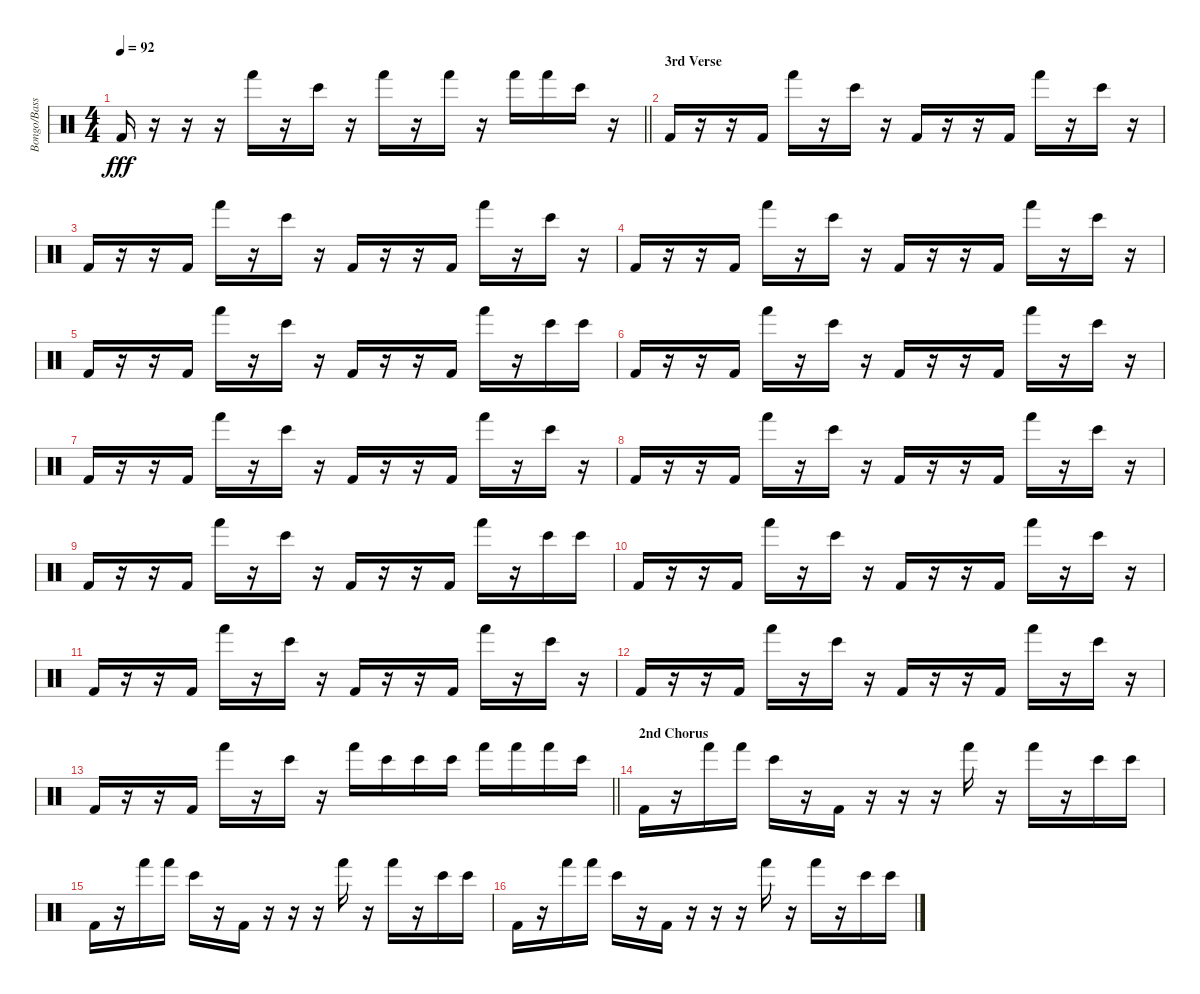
\track ("Bongo/Bass Drum" "Bongo/Bass") {instrument percussion}
\staff
\articulation defaults
\ts (4 4)
\tempo 92
\clef neutral
\barLineRight lightlight
\ks c "Kick (hit) 2".16{dy fff}
r.16 r.16 r.16 "Hand (hit)".16 r.16 "Bongo High (hit)".16 r.16 "Hand (hit)".16 r.16 "Hand (hit)".16 r.16 "Hand (hit)".16 "Hand (hit)".16 "Bongo High (hit)".16 r.16 |
\section ("" "3rd Verse")
"Kick (hit) 2".16 r.16 r.16 "Kick (hit) 2".16 "Hand (hit)".16 r.16 "Bongo High (hit)".16 r.16 "Kick (hit) 2".16 r.16 r.16 "Kick (hit) 2".16 "Hand (hit)".16 r.16 "Bongo High (hit)".16 r.16 |
"Kick (hit) 2".16 r.16 r.16 "Kick (hit) 2".16 "Hand (hit)".16 r.16 "Bongo High (hit)".16 r.16 "Kick (hit) 2".16 r.16 r.16 "Kick (hit) 2".16 "Hand (hit)".16 r.16 "Bongo High (hit)".16 r.16 |
"Kick (hit) 2".16 r.16 r.16 "Kick (hit) 2".16 "Hand (hit)".16 r.16 "Bongo High (hit)".16 r.16 "Kick (hit) 2".16 r.16 r.16 "Kick (hit) 2".16 "Hand (hit)".16 r.16 "Bongo High (hit)".16 r.16 |
"Kick (hit) 2".16 r.16 r.16 "Kick (hit) 2".16 "Hand (hit)".16 r.16 "Bongo High (hit)".16 r.16 "Kick (hit) 2".16 r.16 r.16 "Kick (hit) 2".16 "Hand (hit)".16 r.16 "Bongo High (hit)".16 "Bongo High (hit)".16 |
"Kick (hit) 2".16 r.16 r.16 "Kick (hit) 2".16 "Hand (hit)".16 r.16 "Bongo High (hit)".16 r.16 "Kick (hit) 2".16 r.16 r.16 "Kick (hit) 2".16 "Hand (hit)".16 r.16 "Bongo High (hit)".16 r.16 |
"Kick (hit) 2".16 r.16 r.16 "Kick (hit) 2".16 "Hand (hit)".16 r.16 "Bongo High (hit)".16 r.16 "Kick (hit) 2".16 r.16 r.16 "Kick (hit) 2".16 "Hand (hit)".16 r.16 "Bongo High (hit)".16 r.16 |
"Kick (hit) 2".16 r.16 r.16 "Kick (hit) 2".16 "Hand (hit)".16 r.16 "Bongo High (hit)".16 r.16 "Kick (hit) 2".16 r.16 r.16 "Kick (hit) 2".16 "Hand (hit)".16 r.16 "Bongo High (hit)".16 r.16 |
"Kick (hit) 2".16 r.16 r.16 "Kick (hit) 2".16 "Hand (hit)".16 r.16 "Bongo High (hit)".16 r.16 "Kick (hit) 2".16 r.16 r.16 "Kick (hit) 2".16 "Hand (hit)".16 r.16 "Bongo High (hit)".16 "Bongo High (hit)".16 |
"Kick (hit) 2".16 r.16 r.16 "Kick (hit) 2".16 "Hand (hit)".16 r.16 "Bongo High (hit)".16 r.16 "Kick (hit) 2".16 r.16 r.16 "Kick (hit) 2".16 "Hand (hit)".16 r.16 "Bongo High (hit)".16 r.16 |
"Kick (hit) 2".16 r.16 r.16 "Kick (hit) 2".16 "Hand (hit)".16 r.16 "Bongo High (hit)".16 r.16 "Kick (hit) 2".16 r.16 r.16 "Kick (hit) 2".16 "Hand (hit)".16 r.16 "Bongo High (hit)".16 r.16 |
"Kick (hit) 2".16 r.16 r.16 "Kick (hit) 2".16 "Hand (hit)".16 r.16 "Bongo High (hit)".16 r.16 "Kick (hit) 2".16 r.16 r.16 "Kick (hit) 2".16 "Hand (hit)".16 r.16 "Bongo High (hit)".16 r.16 |
\barLineRight lightlight "Kick (hit) 2".16
r.16 r.16 "Kick (hit) 2".16 "Hand (hit)".16 r.16 "Bongo High (hit)".16 r.16 "Hand (hit)".16 "Bongo High (hit)".16 "Bongo High (hit)".16 "Bongo High (hit)".16 "Hand (hit)".16 "Hand (hit)".16 "Hand (hit)".16 "Bongo High (hit)".16 |
\section ("" "2nd Chorus")
"Kick (hit) 2".16 r.16 "Hand (hit)".16 "Hand (hit)".16 "Bongo High (hit)".16 r.16 "Kick (hit) 2".16 r.16 r.16 r.16 "Hand (hit)".16 r.16 "Hand (hit)".16 r.16 "Bongo High (hit)".16 "Bongo High (hit)".16 |
"Kick (hit) 2".16 r.16 "Hand (hit)".16 "Hand (hit)".16 "Bongo High (hit)".16 r.16 "Kick (hit) 2".16 r.16 r.16 r.16 "Hand (hit)".16 r.16 "Hand (hit)".16 r.16 "Bongo High (hit)".16 "Bongo High (hit)".16 |
"Kick (hit) 2".16 r.16 "Hand (hit)".16 "Hand (hit)".16 "Bongo High (hit)".16 r.16 "Kick (hit) 2".16 r.16 r.16 r.16 "Hand (hit)".16 r.16 "Hand (hit)".16 r.16 "Bongo High (hit)".16 "Bongo High (hit)".16
